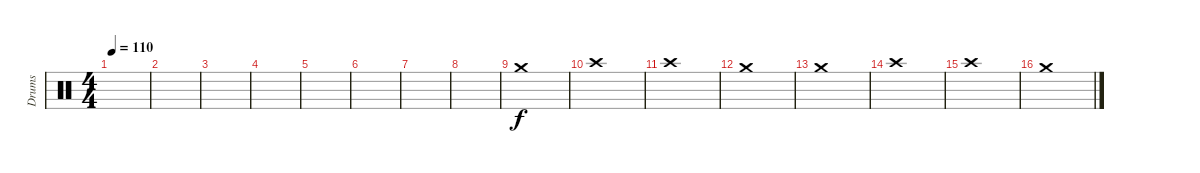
\track ("Drums" "Drums") {instrument percussion}
\staff {score}
\articulation defaults
\ts (4 4)
\tempo 110
\clef neutral
\ks c
|
|
|
|
|
|
|
|
"Crash medium (hit)".1 |
"Crash high (hit)".1 |
"Crash high (hit)".1 |
"Crash medium (hit)".1 |
"Crash medium (hit)".1 |
"Crash high (hit)".1 |
"Crash high (hit)".1 |
"Crash medium (hit)".1
